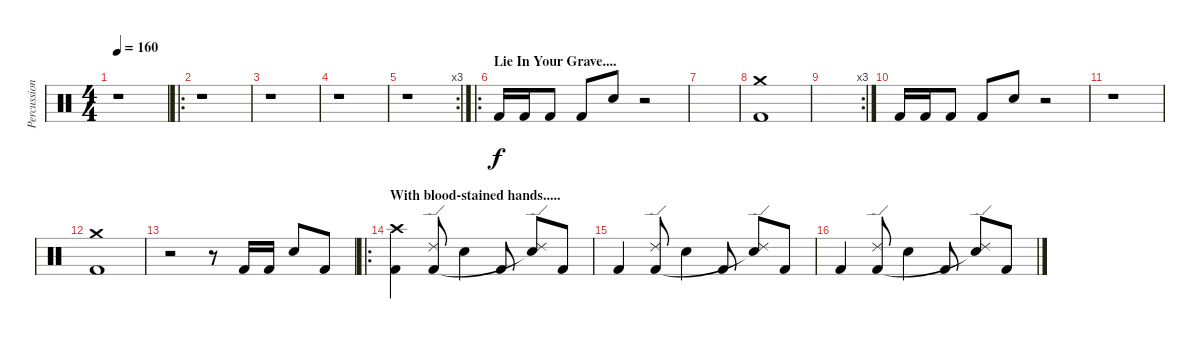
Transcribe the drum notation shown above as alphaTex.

\track ("Percussion" "Percussion") {instrument percussion}
\staff {score}
\articulation defaults
\ts (4 4)
\tempo 160
\clef neutral
\ks c
r.1{dy f} |
\ro
r.1 |
r.1 |
r.1 |
\rc 3
r.1 |
\ro
\section ("" "Lie In Your Grave....")
"Kick (hit) 2".16 "Kick (hit) 2".16 "Kick (hit) 2".8 "Kick (hit) 2".8 "Snare (hit) 2".8 r.2 |
|
("Crash medium (hit)" "Kick (hit) 2").1 |
\rc 3
|
"Kick (hit) 2".16 "Kick (hit) 2".16 "Kick (hit) 2".8 "Kick (hit) 2".8 "Snare (hit) 2".8 r.2 |
r.1 |
("Crash medium (hit)" "Kick (hit) 2").1 |
r.2 r.8 "Kick (hit) 2".16 "Kick (hit) 2".16 "Snare (hit) 2".8 "Kick (hit) 2".8 |
\ro
\section ("" "With blood-stained hands.....")
("Crash high (hit)" "Kick (hit) 2").4 ("Ride (edge) 2" "Kick (hit) 2").8 "Snare (hit) 2".4 "Kick (hit) 2".8 ("Ride (edge) 2" "Snare (hit)"{t}).8 "Kick (hit) 2".8 |
"Kick (hit) 2".4 ("Ride (edge) 2" "Kick (hit) 2").8 "Snare (hit) 2".4 "Kick (hit) 2".8 ("Ride (edge) 2" "Snare (hit)"{t}).8 "Kick (hit) 2".8 |
"Kick (hit) 2".4 ("Ride (edge) 2" "Kick (hit) 2").8 "Snare (hit) 2".4 "Kick (hit) 2".8 ("Ride (edge) 2" "Snare (hit)"{t}).8 "Kick (hit) 2".8
